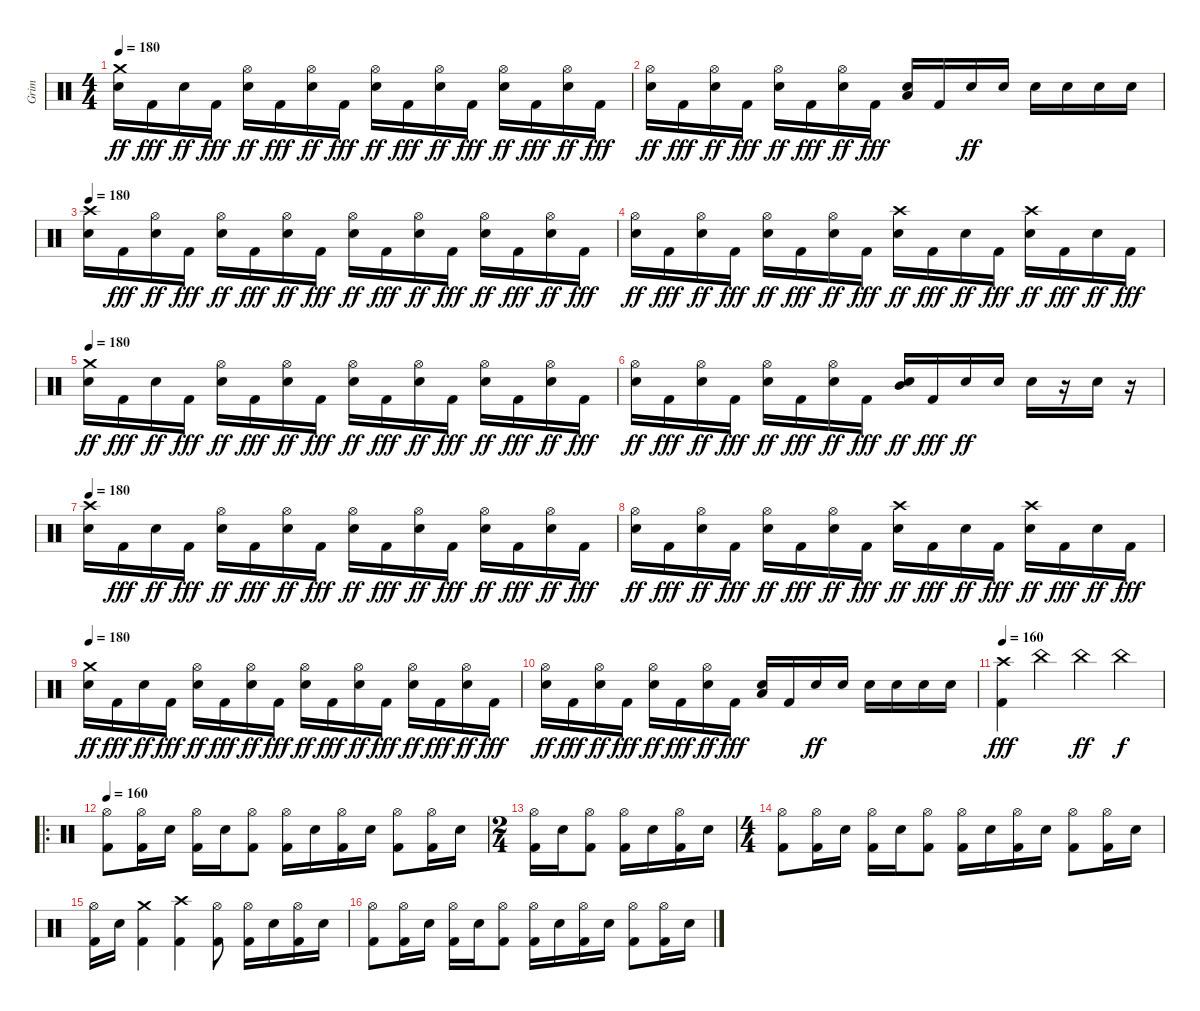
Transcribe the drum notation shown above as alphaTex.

\track ("Grim" "Grim") {instrument percussion}
\staff {score}
\articulation defaults
\ts (4 4)
\tempo 180
\clef neutral
\ks c
("Crash medium (hit)" "Electric Snare (hit)").16{dy ff} "Kick (hit) 2".16{dy fff} "Electric Snare (hit)".16{dy ff} "Kick (hit) 2".16{dy fff} ("Hi-Hat (open)" "Electric Snare (hit)").16{dy ff} "Kick (hit) 2".16{dy fff} ("Hi-Hat (open)" "Electric Snare (hit)").16{dy ff} "Kick (hit) 2".16{dy fff} ("Hi-Hat (open)" "Electric Snare (hit)").16{dy ff} "Kick (hit) 2".16{dy fff} ("Hi-Hat (open)" "Electric Snare (hit)").16{dy ff} "Kick (hit) 2".16{dy fff} ("Hi-Hat (open)" "Electric Snare (hit)").16{dy ff} "Kick (hit) 2".16{dy fff} ("Hi-Hat (open)" "Electric Snare (hit)").16{dy ff} "Kick (hit) 2".16{dy fff} |
("Hi-Hat (open)" "Electric Snare (hit)").16{dy ff} "Kick (hit) 2".16{dy fff} ("Hi-Hat (open)" "Electric Snare (hit)").16{dy ff} "Kick (hit) 2".16{dy fff} ("Hi-Hat (open)" "Electric Snare (hit)").16{dy ff} "Kick (hit) 2".16{dy fff} ("Hi-Hat (open)" "Electric Snare (hit)").16{dy ff} "Kick (hit) 2".16{dy fff} ("Electric Snare (hit)" "Low Tom (hit)").16 "Kick (hit) 2".16 "Electric Snare (hit)".16{dy ff} "Electric Snare (hit)".16 "Electric Snare (hit)".16 "Electric Snare (hit)".16 "Electric Snare (hit)".16 "Electric Snare (hit)".16 |
\tempo 180
("Crash high (hit)" "Electric Snare (hit)").16 "Kick (hit) 2".16{dy fff} ("Hi-Hat (open)" "Electric Snare (hit)").16{dy ff} "Kick (hit) 2".16{dy fff} ("Hi-Hat (open)" "Electric Snare (hit)").16{dy ff} "Kick (hit) 2".16{dy fff} ("Hi-Hat (open)" "Electric Snare (hit)").16{dy ff} "Kick (hit) 2".16{dy fff} ("Hi-Hat (open)" "Electric Snare (hit)").16{dy ff} "Kick (hit) 2".16{dy fff} ("Hi-Hat (open)" "Electric Snare (hit)").16{dy ff} "Kick (hit) 2".16{dy fff} ("Hi-Hat (open)" "Electric Snare (hit)").16{dy ff} "Kick (hit) 2".16{dy fff} ("Hi-Hat (open)" "Electric Snare (hit)").16{dy ff} "Kick (hit) 2".16{dy fff} |
("Hi-Hat (open)" "Electric Snare (hit)").16{dy ff} "Kick (hit) 2".16{dy fff} ("Hi-Hat (open)" "Electric Snare (hit)").16{dy ff} "Kick (hit) 2".16{dy fff} ("Hi-Hat (open)" "Electric Snare (hit)").16{dy ff} "Kick (hit) 2".16{dy fff} ("Hi-Hat (open)" "Electric Snare (hit)").16{dy ff} "Kick (hit) 2".16{dy fff} ("Crash high (hit)" "Electric Snare (hit)").16{dy ff} "Kick (hit) 2".16{dy fff} "Electric Snare (hit)".16{dy ff} "Kick (hit) 2".16{dy fff} ("Crash high (hit)" "Electric Snare (hit)").16{dy ff} "Kick (hit) 2".16{dy fff} "Electric Snare (hit)".16{dy ff} "Kick (hit) 2".16{dy fff} |
\tempo 180
("Crash medium (hit)" "Electric Snare (hit)").16{dy ff} "Kick (hit) 2".16{dy fff} "Electric Snare (hit)".16{dy ff} "Kick (hit) 2".16{dy fff} ("Hi-Hat (open)" "Electric Snare (hit)").16{dy ff} "Kick (hit) 2".16{dy fff} ("Hi-Hat (open)" "Electric Snare (hit)").16{dy ff} "Kick (hit) 2".16{dy fff} ("Hi-Hat (open)" "Electric Snare (hit)").16{dy ff} "Kick (hit) 2".16{dy fff} ("Hi-Hat (open)" "Electric Snare (hit)").16{dy ff} "Kick (hit) 2".16{dy fff} ("Hi-Hat (open)" "Electric Snare (hit)").16{dy ff} "Kick (hit) 2".16{dy fff} ("Hi-Hat (open)" "Electric Snare (hit)").16{dy ff} "Kick (hit) 2".16{dy fff} |
("Hi-Hat (open)" "Electric Snare (hit)").16{dy ff} "Kick (hit) 2".16{dy fff} ("Hi-Hat (open)" "Electric Snare (hit)").16{dy ff} "Kick (hit) 2".16{dy fff} ("Hi-Hat (open)" "Electric Snare (hit)").16{dy ff} "Kick (hit) 2".16{dy fff} ("Hi-Hat (open)" "Electric Snare (hit)").16{dy ff} "Kick (hit) 2".16{dy fff} ("Mid Tom (hit)" "Electric Snare (hit)").16{dy ff} "Kick (hit) 2".16{dy fff} "Electric Snare (hit)".16{dy ff} "Electric Snare (hit)".16 "Electric Snare (hit)".16 r.16 "Electric Snare (hit)".16 r.16 |
\tempo 180
("Crash high (hit)" "Electric Snare (hit)").16 "Kick (hit) 2".16{dy fff} "Electric Snare (hit)".16{dy ff} "Kick (hit) 2".16{dy fff} ("Hi-Hat (open)" "Electric Snare (hit)").16{dy ff} "Kick (hit) 2".16{dy fff} ("Hi-Hat (open)" "Electric Snare (hit)").16{dy ff} "Kick (hit) 2".16{dy fff} ("Hi-Hat (open)" "Electric Snare (hit)").16{dy ff} "Kick (hit) 2".16{dy fff} ("Hi-Hat (open)" "Electric Snare (hit)").16{dy ff} "Kick (hit) 2".16{dy fff} ("Hi-Hat (open)" "Electric Snare (hit)").16{dy ff} "Kick (hit) 2".16{dy fff} ("Hi-Hat (open)" "Electric Snare (hit)").16{dy ff} "Kick (hit) 2".16{dy fff} |
("Hi-Hat (open)" "Electric Snare (hit)").16{dy ff} "Kick (hit) 2".16{dy fff} ("Hi-Hat (open)" "Electric Snare (hit)").16{dy ff} "Kick (hit) 2".16{dy fff} ("Hi-Hat (open)" "Electric Snare (hit)").16{dy ff} "Kick (hit) 2".16{dy fff} ("Hi-Hat (open)" "Electric Snare (hit)").16{dy ff} "Kick (hit) 2".16{dy fff} ("Crash high (hit)" "Electric Snare (hit)").16{dy ff} "Kick (hit) 2".16{dy fff} "Electric Snare (hit)".16{dy ff} "Kick (hit) 2".16{dy fff} ("Crash high (hit)" "Electric Snare (hit)").16{dy ff} "Kick (hit) 2".16{dy fff} "Electric Snare (hit)".16{dy ff} "Kick (hit) 2".16{dy fff} |
\tempo 180
("Crash medium (hit)" "Electric Snare (hit)").16{dy ff} "Kick (hit) 2".16{dy fff} "Electric Snare (hit)".16{dy ff} "Kick (hit) 2".16{dy fff} ("Hi-Hat (open)" "Electric Snare (hit)").16{dy ff} "Kick (hit) 2".16{dy fff} ("Hi-Hat (open)" "Electric Snare (hit)").16{dy ff} "Kick (hit) 2".16{dy fff} ("Hi-Hat (open)" "Electric Snare (hit)").16{dy ff} "Kick (hit) 2".16{dy fff} ("Hi-Hat (open)" "Electric Snare (hit)").16{dy ff} "Kick (hit) 2".16{dy fff} ("Hi-Hat (open)" "Electric Snare (hit)").16{dy ff} "Kick (hit) 2".16{dy fff} ("Hi-Hat (open)" "Electric Snare (hit)").16{dy ff} "Kick (hit) 2".16{dy fff} |
("Hi-Hat (open)" "Electric Snare (hit)").16{dy ff} "Kick (hit) 2".16{dy fff} ("Hi-Hat (open)" "Electric Snare (hit)").16{dy ff} "Kick (hit) 2".16{dy fff} ("Hi-Hat (open)" "Electric Snare (hit)").16{dy ff} "Kick (hit) 2".16{dy fff} ("Hi-Hat (open)" "Electric Snare (hit)").16{dy ff} "Kick (hit) 2".16{dy fff} ("Electric Snare (hit)" "Low Tom (hit)").16 "Kick (hit) 2".16 "Electric Snare (hit)".16{dy ff} "Electric Snare (hit)".16 "Electric Snare (hit)".16 "Electric Snare (hit)".16 "Electric Snare (hit)".16 "Electric Snare (hit)".16 |
\tempo 160
("Crash high (hit)" "Kick (hit) 2").4{dy fff} "China (hit)".4 "China (hit)".4{dy ff} "China (hit)".4{dy f} |
\ro
\tempo 160
("Hi-Hat (open)" "Kick (hit) 2").8 ("Hi-Hat (open)" "Kick (hit) 2").16 "Electric Snare (hit)".16 ("Hi-Hat (open)" "Kick (hit) 2").16 "Electric Snare (hit)".16 ("Hi-Hat (open)" "Kick (hit) 2").8 ("Hi-Hat (open)" "Kick (hit) 2").16 "Electric Snare (hit)".16 ("Hi-Hat (open)" "Kick (hit) 2").16 "Electric Snare (hit)".16 ("Hi-Hat (open)" "Kick (hit) 2").8 ("Hi-Hat (open)" "Kick (hit) 2").16 "Electric Snare (hit)".16 |
\ts (2 4)
("Hi-Hat (open)" "Kick (hit) 2").16 "Electric Snare (hit)".16 ("Hi-Hat (open)" "Kick (hit) 2").8 ("Hi-Hat (open)" "Kick (hit) 2").16 "Electric Snare (hit)".16 ("Hi-Hat (open)" "Kick (hit) 2").16 "Electric Snare (hit)".16 |
\ts (4 4)
("Hi-Hat (open)" "Kick (hit) 2").8 ("Hi-Hat (open)" "Kick (hit) 2").16 "Electric Snare (hit)".16 ("Hi-Hat (open)" "Kick (hit) 2").16 "Electric Snare (hit)".16 ("Hi-Hat (open)" "Kick (hit) 2").8 ("Hi-Hat (open)" "Kick (hit) 2").16 "Electric Snare (hit)".16 ("Hi-Hat (open)" "Kick (hit) 2").16 "Electric Snare (hit)".16 ("Hi-Hat (open)" "Kick (hit) 2").8 ("Hi-Hat (open)" "Kick (hit) 2").16 "Electric Snare (hit)".16 |
("Hi-Hat (open)" "Kick (hit) 2").16 "Electric Snare (hit)".16 ("Crash medium (hit)" "Kick (hit) 2").4 ("Crash high (hit)" "Kick (hit) 2").4 ("Hi-Hat (open)" "Kick (hit) 2").8 ("Hi-Hat (open)" "Kick (hit) 2").16 "Electric Snare (hit)".16 ("Hi-Hat (open)" "Kick (hit) 2").16 "Electric Snare (hit)".16 |
("Hi-Hat (open)" "Kick (hit) 2").8 ("Hi-Hat (open)" "Kick (hit) 2").16 "Electric Snare (hit)".16 ("Hi-Hat (open)" "Kick (hit) 2").16 "Electric Snare (hit)".16 ("Hi-Hat (open)" "Kick (hit) 2").8 ("Hi-Hat (open)" "Kick (hit) 2").16 "Electric Snare (hit)".16 ("Hi-Hat (open)" "Kick (hit) 2").16 "Electric Snare (hit)".16 ("Hi-Hat (open)" "Kick (hit) 2").8 ("Hi-Hat (open)" "Kick (hit) 2").16 "Electric Snare (hit)".16
